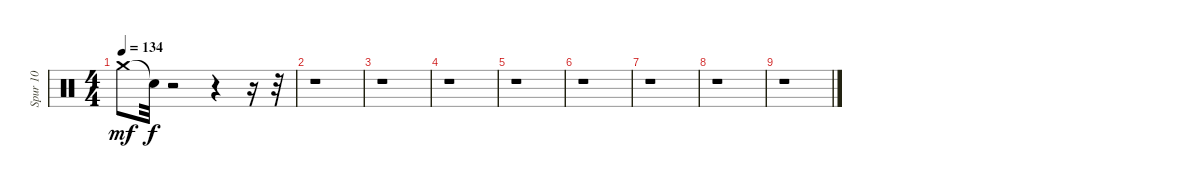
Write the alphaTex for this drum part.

\track ("Spur 10" "Spur 10") {instrument percussion}
\staff {score}
\articulation defaults
\ts (4 4)
\tempo 134
\clef neutral
\ks c "Crash medium (hit)".8{dy mf} "Snare (hit)"{t}.32{dy f}
r.2 r.4 r.16 r.32 |
r.1 |
r.1 |
r.1 |
r.1 |
r.1 |
r.1 |
r.1 |
r.1
